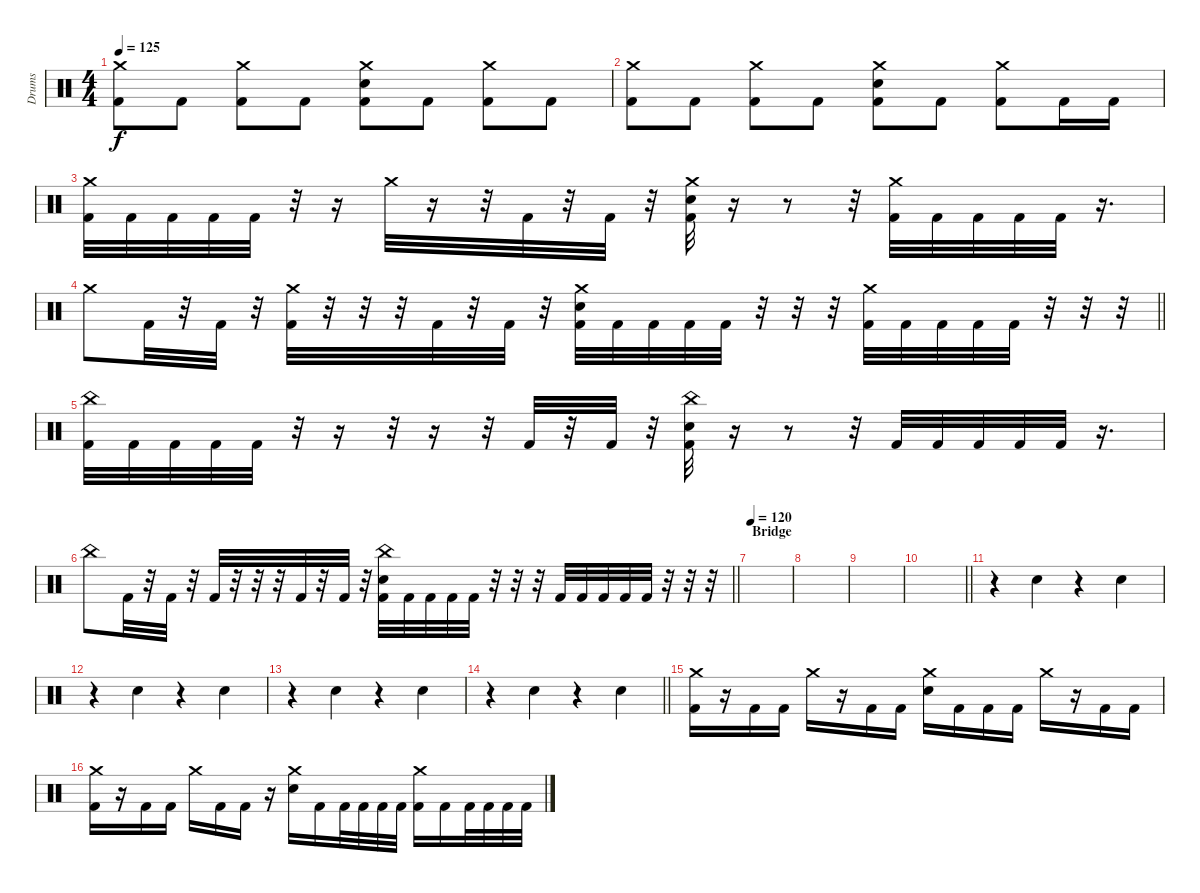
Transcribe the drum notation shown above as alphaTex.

\track ("Drums" "Drums") {instrument percussion}
\staff {score}
\articulation defaults
\ts (4 4)
\tempo 125
\clef neutral
\ks c
("Crash medium (hit)" "Kick (hit) 2").8{dy f} "Kick (hit) 2".8 ("Crash medium (hit)" "Kick (hit) 2").8 "Kick (hit) 2".8 ("Crash medium (hit)" "Electric Snare (hit)" "Kick (hit) 2").8 "Kick (hit) 2".8 ("Crash medium (hit)" "Kick (hit) 2").8 "Kick (hit) 2".8 |
("Crash medium (hit)" "Kick (hit) 2").8 "Kick (hit) 2".8 ("Crash medium (hit)" "Kick (hit) 2").8 "Kick (hit) 2".8 ("Crash medium (hit)" "Electric Snare (hit)" "Kick (hit) 2").8 "Kick (hit) 2".8 ("Crash medium (hit)" "Kick (hit) 2").8 "Kick (hit) 2".16 "Kick (hit) 2".16 |
("Crash medium (hit)" "Kick (hit) 2").32 "Kick (hit) 2".32 "Kick (hit) 2".32 "Kick (hit) 2".32 "Kick (hit) 2".32 r.32 r.16 "Crash medium (hit)".32 r.16 r.32 "Kick (hit) 2".32 r.32 "Kick (hit) 2".32 r.32 ("Crash medium (hit)" "Electric Snare (hit)" "Kick (hit) 2").32 r.16 r.8 r.32 ("Crash medium (hit)" "Kick (hit) 2").32 "Kick (hit) 2".32 "Kick (hit) 2".32 "Kick (hit) 2".32 "Kick (hit) 2".32 r.16{d} |
\barLineRight lightlight "Crash medium (hit)".8 "Kick (hit) 2".32
r.32 "Kick (hit) 2".32 r.32 ("Crash medium (hit)" "Kick (hit) 2").32 r.32 r.32 r.32 "Kick (hit) 2".32 r.32 "Kick (hit) 2".32 r.32 ("Crash medium (hit)" "Electric Snare (hit)" "Kick (hit) 2").32 "Kick (hit) 2".32 "Kick (hit) 2".32 "Kick (hit) 2".32 "Kick (hit) 2".32 r.32 r.32 r.32 ("Crash medium (hit)" "Kick (hit) 2").32 "Kick (hit) 2".32 "Kick (hit) 2".32 "Kick (hit) 2".32 "Kick (hit) 2".32 r.32 r.32 r.32 |
("China (hit)" "Kick (hit) 2").32 "Kick (hit) 2".32 "Kick (hit) 2".32 "Kick (hit) 2".32 "Kick (hit) 2".32 r.32 r.16 r.32 r.16 r.32 "Kick (hit) 2".32 r.32 "Kick (hit) 2".32 r.32 ("China (hit)" "Electric Snare (hit)" "Kick (hit) 2").32 r.16 r.8 r.32 "Kick (hit) 2".32 "Kick (hit) 2".32 "Kick (hit) 2".32 "Kick (hit) 2".32 "Kick (hit) 2".32 r.16{d} |
\barLineRight lightlight "China (hit)".8 "Kick (hit) 2".32
r.32 "Kick (hit) 2".32 r.32 "Kick (hit) 2".32 r.32 r.32 r.32 "Kick (hit) 2".32 r.32 "Kick (hit) 2".32 r.32 ("China (hit)" "Electric Snare (hit)" "Kick (hit) 2").32 "Kick (hit) 2".32 "Kick (hit) 2".32 "Kick (hit) 2".32 "Kick (hit) 2".32 r.32 r.32 r.32 "Kick (hit) 2".32 "Kick (hit) 2".32 "Kick (hit) 2".32 "Kick (hit) 2".32 "Kick (hit) 2".32 r.32 r.32 r.32 |
\section ("" "Bridge")
\tempo 120
|
|
|
\barLineRight lightlight
|
\section ("" "")
r.4 "Hand Clap (hit)".4 r.4 "Hand Clap (hit)".4 |
r.4 "Hand Clap (hit)".4 r.4 "Hand Clap (hit)".4 |
r.4 "Hand Clap (hit)".4 r.4 "Hand Clap (hit)".4 |
\barLineRight lightlight
r.4 "Hand Clap (hit)".4 r.4 "Hand Clap (hit)".4 |
\section ("" "")
("Crash medium (hit)" "Kick (hit) 2").16 r.16 "Kick (hit) 2".16 "Kick (hit) 2".16 "Crash medium (hit)".16 r.16 "Kick (hit) 2".16 "Kick (hit) 2".16 ("Crash medium (hit)" "Electric Snare (hit)").16 "Kick (hit) 2".16 "Kick (hit) 2".16 "Kick (hit) 2".16 "Crash medium (hit)".16 r.16 "Kick (hit) 2".16 "Kick (hit) 2".16 |
("Crash medium (hit)" "Kick (hit) 2").16 r.16 "Kick (hit) 2".16 "Kick (hit) 2".16 "Crash medium (hit)".16 "Kick (hit) 2".16 "Kick (hit) 2".16 r.16 ("Crash medium (hit)" "Electric Snare (hit)").16 "Kick (hit) 2".16 "Kick (hit) 2".32 "Kick (hit) 2".32 "Kick (hit) 2".32 "Kick (hit) 2".32 ("Crash medium (hit)" "Kick (hit) 2").16 "Kick (hit) 2".16 "Kick (hit) 2".32 "Kick (hit) 2".32 "Kick (hit) 2".32 "Kick (hit) 2".32
